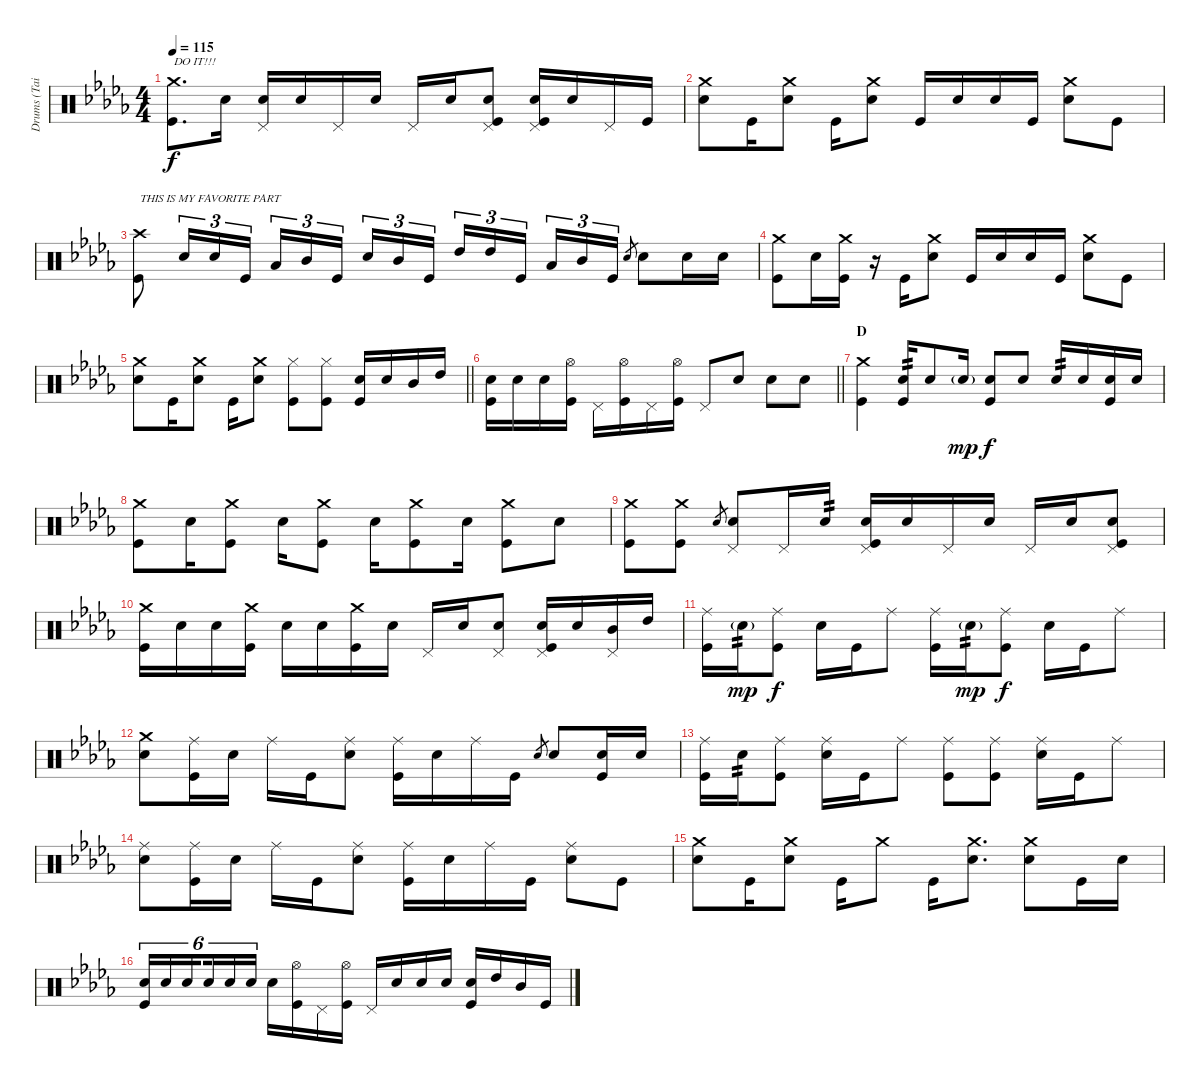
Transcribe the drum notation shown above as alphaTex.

\track ("Drums (Tainaka Ritsu)" "Drums (Tai") {instrument percussion}
\staff {score}
\articulation defaults
\ts (4 4)
\tempo 115
\clef neutral
\ks db
("Crash medium (hit)" "Kick (hit)").8{d txt "DO IT!!!" dy f} "Snare (hit) 2".16 ("Pedal Hi-Hat (hit)" "Snare (hit) 2").16 "Snare (hit) 2".16 "Pedal Hi-Hat (hit)".16 "Snare (hit) 2".16 "Pedal Hi-Hat (hit)".16 "Snare (hit) 2".16 ("Pedal Hi-Hat (hit)" "Snare (hit) 2" "Kick (hit)").8 ("Pedal Hi-Hat (hit)" "Snare (hit) 2" "Kick (hit)").16 "Snare (hit) 2".16 "Pedal Hi-Hat (hit)".16 "Kick (hit)".16 |
("Crash medium (hit)" "Snare (hit) 2").8 "Kick (hit)".16 ("Crash medium (hit)" "Snare (hit) 2").8 "Kick (hit)".16 ("Crash medium (hit)" "Snare (hit) 2").8 "Kick (hit)".16 "Snare (hit) 2".16 "Snare (hit) 2".16 "Kick (hit)".16 ("Crash medium (hit)" "Snare (hit) 2").8 "Kick (hit)".8 |
("Crash high (hit)" "Kick (hit)").8{txt "THIS IS MY FAVORITE PART"} "Snare (hit) 2".16{tu (3 2)} "Snare (hit) 2".16{tu (3 2)} "Kick (hit)".16{tu (3 2)} "Low Tom (hit)".16{tu (3 2)} "Mid Tom (hit)".16{tu (3 2)} "Kick (hit)".16{tu (3 2) beam splitsecondary} "Snare (hit) 2".16{tu (3 2)} "Mid Tom (hit)".16{tu (3 2)} "Kick (hit)".16{tu (3 2)} "High Tom (hit)".16{tu (3 2)} "High Tom (hit)".16{tu (3 2)} "Kick (hit)".16{tu (3 2) beam splitsecondary} "Low Tom (hit)".16{tu (3 2)} "Mid Tom (hit)".16{tu (3 2)} "Kick (hit)".16{tu (3 2)} "Snare (hit) 2".8{gr} "Snare (hit) 2".8 "Snare (hit) 2".16 "Snare (hit) 2".16 |
("Crash medium (hit)" "Kick (hit)").8 "Snare (hit) 2".16 ("Crash medium (hit)" "Kick (hit)").16 r.16 "Kick (hit)".16 ("Crash medium (hit)" "Snare (hit) 2").8 "Kick (hit)".16 "Snare (hit) 2".16 "Snare (hit) 2".16 "Kick (hit)".16 ("Crash medium (hit)" "Snare (hit) 2").8 "Kick (hit)".8 |
\barLineRight lightlight
("Crash medium (hit)" "Snare (hit) 2").8 "Kick (hit)".16 ("Crash medium (hit)" "Snare (hit) 2").8 "Kick (hit)".16 ("Crash medium (hit)" "Snare (hit) 2").8 ("Hi-Hat (closed)" "Kick (hit)").8 ("Hi-Hat (closed)" "Kick (hit)").8 ("Snare (hit) 2" "Kick (hit)").16 "Snare (hit) 2".16 "Mid Tom (hit)".16 "High Tom (hit)".16 |
\barLineRight lightlight
("Snare (hit) 2" "Kick (hit)").16 "Snare (hit) 2".16 "Snare (hit) 2".16 ("Hi-Hat (open)" "Kick (hit)").16 "Pedal Hi-Hat (hit)".16 ("Hi-Hat (open)" "Kick (hit)").16 "Pedal Hi-Hat (hit)".16 ("Hi-Hat (open)" "Kick (hit)").16 "Pedal Hi-Hat (hit)".8 "Snare (hit) 2".8 "Snare (hit) 2".8 "Snare (hit) 2".8 |
\section ("" "D")
("Crash medium (hit)" "Kick (hit)").4 ("Snare (hit) 2" "Kick (hit)").16{tp 2} "Snare (hit) 2".8 "Snare (hit) 2"{g}.16{dy mp} ("Snare (hit) 2" "Kick (hit)").8{dy f} "Snare (hit) 2".8 "Snare (hit) 2".16{tp 2} "Snare (hit) 2".16 ("Snare (hit) 2" "Kick (hit)").16 "Snare (hit) 2".16 |
("Crash medium (hit)" "Kick (hit)").8 "Snare (hit) 2".16 ("Crash medium (hit)" "Kick (hit)").8 "Snare (hit) 2".16 ("Crash medium (hit)" "Kick (hit)").8 "Snare (hit) 2".16 ("Crash medium (hit)" "Kick (hit)").8 "Snare (hit) 2".16 ("Crash medium (hit)" "Kick (hit)").8 "Snare (hit) 2".8 |
("Crash medium (hit)" "Kick (hit)").8 ("Crash medium (hit)" "Kick (hit)").8 "Snare (hit) 2".8{gr} ("Pedal Hi-Hat (hit)" "Snare (hit) 2").8 "Pedal Hi-Hat (hit)".16 "Snare (hit) 2".16{tp 2} ("Pedal Hi-Hat (hit)" "Snare (hit) 2" "Kick (hit)").16 "Snare (hit) 2".16 "Pedal Hi-Hat (hit)".16 "Snare (hit) 2".16 "Pedal Hi-Hat (hit)".16 "Snare (hit) 2".16 ("Pedal Hi-Hat (hit)" "Snare (hit) 2" "Kick (hit)").8 |
("Crash medium (hit)" "Kick (hit)").16 "Snare (hit) 2".16 "Snare (hit) 2".16 ("Crash medium (hit)" "Kick (hit)").16 "Snare (hit) 2".16 "Snare (hit) 2".16 ("Crash medium (hit)" "Kick (hit)").16 "Snare (hit) 2".16 "Pedal Hi-Hat (hit)".16 "Snare (hit) 2".16 ("Pedal Hi-Hat (hit)" "Snare (hit) 2").8 ("Pedal Hi-Hat (hit)" "Snare (hit) 2" "Kick (hit)").16 "Snare (hit) 2".16 ("Pedal Hi-Hat (hit)" "Mid Tom (hit)").16 "High Tom (hit)".16 |
("Ride (middle)" "Kick (hit)").16 "Snare (hit) 2"{g}.16{tp 2 dy mp} ("Ride (middle)" "Kick (hit)").8{dy f} "Snare (hit) 2".16 "Kick (hit)".16 "Ride (middle)".8 ("Ride (middle)" "Kick (hit)").16 "Snare (hit) 2"{g}.16{tp 2 dy mp} ("Ride (middle)" "Kick (hit)").8{dy f} "Snare (hit) 2".16 "Kick (hit)".16 "Ride (middle)".8 |
("Crash medium (hit)" "Snare (hit) 2").8 ("Ride (middle)" "Kick (hit)").16 "Snare (hit) 2".16 "Ride (middle)".16 "Kick (hit)".16 ("Ride (middle)" "Snare (hit) 2").8 ("Ride (middle)" "Kick (hit)").16 "Snare (hit) 2".16 "Ride (middle)".16 "Kick (hit)".16 "Snare (hit) 2".8{gr} "Snare (hit) 2".8 ("Snare (hit) 2" "Kick (hit)").16 "Snare (hit) 2".16 |
("Ride (middle)" "Kick (hit)").16 "Snare (hit) 2".16{tp 2} ("Ride (middle)" "Kick (hit)").8 ("Ride (middle)" "Snare (hit) 2").16 "Kick (hit)".16 "Ride (middle)".8 ("Ride (middle)" "Kick (hit)").8 ("Ride (middle)" "Kick (hit)").8 ("Ride (middle)" "Snare (hit) 2").16 "Kick (hit)".16 "Ride (middle)".8 |
("Ride (middle)" "Snare (hit) 2").8 ("Ride (middle)" "Kick (hit)").16 "Snare (hit) 2".16 "Ride (middle)".16 "Kick (hit)".16 ("Ride (middle)" "Snare (hit) 2").8 ("Ride (middle)" "Kick (hit)").16 "Snare (hit) 2".16 "Ride (middle)".16 "Kick (hit)".16 ("Ride (middle)" "Snare (hit) 2").8 "Kick (hit)".8 |
("Crash medium (hit)" "Snare (hit) 2").8 "Kick (hit)".16 ("Crash medium (hit)" "Snare (hit) 2").8 "Kick (hit)".16 "Crash medium (hit)".8 "Kick (hit)".16 ("Crash medium (hit)" "Snare (hit) 2").8{d} ("Crash medium (hit)" "Snare (hit) 2").8 "Kick (hit)".16 "Snare (hit) 2".16 |
("Snare (hit) 2" "Kick (hit)").16{tu (6 4)} "Snare (hit) 2".16{tu (6 4)} "Snare (hit) 2".16{tu (6 4) beam splitsecondary} "Snare (hit) 2".16{tu (6 4)} "Snare (hit) 2".16{tu (6 4)} "Snare (hit) 2".16{tu (6 4)} "Snare (hit) 2".16 ("Hi-Hat (open)" "Kick (hit)").16 "Pedal Hi-Hat (hit)".16 ("Hi-Hat (open)" "Kick (hit)").16 "Pedal Hi-Hat (hit)".16 "Snare (hit) 2".16 "Snare (hit) 2".16 "Snare (hit) 2".16 ("Snare (hit) 2" "Kick (hit)").16 "High Tom (hit)".16 "Mid Tom (hit)".16 "Kick (hit)".16
